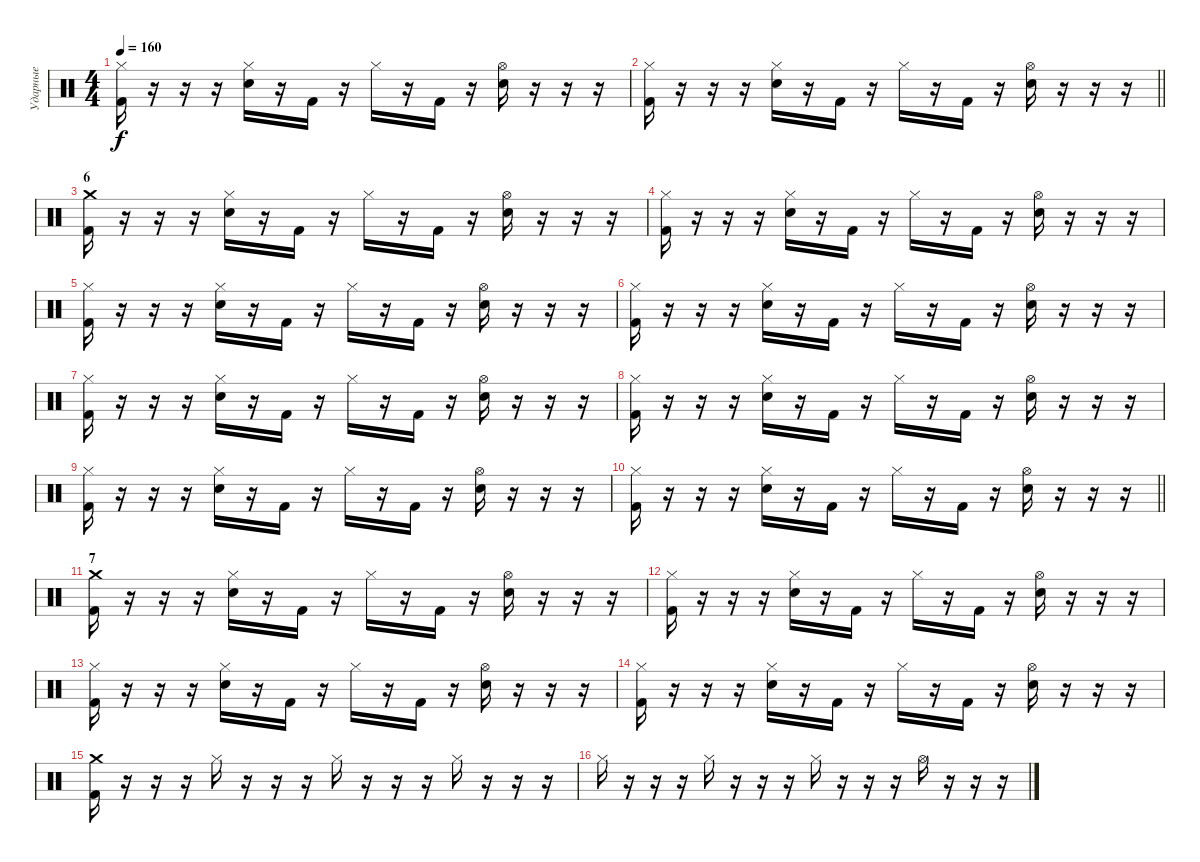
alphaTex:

\track ("Ударные" "Ударные") {instrument percussion}
\staff {score}
\articulation defaults
\ts (4 4)
\tempo 160
\clef neutral
\ks c
("Hi-Hat (closed)" "Kick (hit) 2").16{dy f} r.16 r.16 r.16 ("Hi-Hat (closed)" "Electric Snare (hit)").16 r.16 "Kick (hit) 2".16 r.16 "Hi-Hat (closed)".16 r.16 "Kick (hit) 2".16 r.16 ("Hi-Hat (open)" "Electric Snare (hit)").16 r.16 r.16 r.16 |
\barLineRight lightlight
("Hi-Hat (closed)" "Kick (hit) 2").16 r.16 r.16 r.16 ("Hi-Hat (closed)" "Electric Snare (hit)").16 r.16 "Kick (hit) 2".16 r.16 "Hi-Hat (closed)".16 r.16 "Kick (hit) 2".16 r.16 ("Hi-Hat (open)" "Electric Snare (hit)").16 r.16 r.16 r.16 |
\section ("" "6")
("Crash medium (hit)" "Kick (hit) 2").16 r.16 r.16 r.16 ("Hi-Hat (closed)" "Electric Snare (hit)").16 r.16 "Kick (hit) 2".16 r.16 "Hi-Hat (closed)".16 r.16 "Kick (hit) 2".16 r.16 ("Hi-Hat (open)" "Electric Snare (hit)").16 r.16 r.16 r.16 |
("Hi-Hat (closed)" "Kick (hit) 2").16 r.16 r.16 r.16 ("Hi-Hat (closed)" "Electric Snare (hit)").16 r.16 "Kick (hit) 2".16 r.16 "Hi-Hat (closed)".16 r.16 "Kick (hit) 2".16 r.16 ("Hi-Hat (open)" "Electric Snare (hit)").16 r.16 r.16 r.16 |
("Hi-Hat (closed)" "Kick (hit) 2").16 r.16 r.16 r.16 ("Hi-Hat (closed)" "Electric Snare (hit)").16 r.16 "Kick (hit) 2".16 r.16 "Hi-Hat (closed)".16 r.16 "Kick (hit) 2".16 r.16 ("Hi-Hat (open)" "Electric Snare (hit)").16 r.16 r.16 r.16 |
("Hi-Hat (closed)" "Kick (hit) 2").16 r.16 r.16 r.16 ("Hi-Hat (closed)" "Electric Snare (hit)").16 r.16 "Kick (hit) 2".16 r.16 "Hi-Hat (closed)".16 r.16 "Kick (hit) 2".16 r.16 ("Hi-Hat (open)" "Electric Snare (hit)").16 r.16 r.16 r.16 |
("Hi-Hat (closed)" "Kick (hit) 2").16 r.16 r.16 r.16 ("Hi-Hat (closed)" "Electric Snare (hit)").16 r.16 "Kick (hit) 2".16 r.16 "Hi-Hat (closed)".16 r.16 "Kick (hit) 2".16 r.16 ("Hi-Hat (open)" "Electric Snare (hit)").16 r.16 r.16 r.16 |
("Hi-Hat (closed)" "Kick (hit) 2").16 r.16 r.16 r.16 ("Hi-Hat (closed)" "Electric Snare (hit)").16 r.16 "Kick (hit) 2".16 r.16 "Hi-Hat (closed)".16 r.16 "Kick (hit) 2".16 r.16 ("Hi-Hat (open)" "Electric Snare (hit)").16 r.16 r.16 r.16 |
("Hi-Hat (closed)" "Kick (hit) 2").16 r.16 r.16 r.16 ("Hi-Hat (closed)" "Electric Snare (hit)").16 r.16 "Kick (hit) 2".16 r.16 "Hi-Hat (closed)".16 r.16 "Kick (hit) 2".16 r.16 ("Hi-Hat (open)" "Electric Snare (hit)").16 r.16 r.16 r.16 |
\barLineRight lightlight
("Hi-Hat (closed)" "Kick (hit) 2").16 r.16 r.16 r.16 ("Hi-Hat (closed)" "Electric Snare (hit)").16 r.16 "Kick (hit) 2".16 r.16 "Hi-Hat (closed)".16 r.16 "Kick (hit) 2".16 r.16 ("Hi-Hat (open)" "Electric Snare (hit)").16 r.16 r.16 r.16 |
\section ("" "7")
("Crash medium (hit)" "Kick (hit) 2").16 r.16 r.16 r.16 ("Hi-Hat (closed)" "Electric Snare (hit)").16 r.16 "Kick (hit) 2".16 r.16 "Hi-Hat (closed)".16 r.16 "Kick (hit) 2".16 r.16 ("Hi-Hat (open)" "Electric Snare (hit)").16 r.16 r.16 r.16 |
("Hi-Hat (closed)" "Kick (hit) 2").16 r.16 r.16 r.16 ("Hi-Hat (closed)" "Electric Snare (hit)").16 r.16 "Kick (hit) 2".16 r.16 "Hi-Hat (closed)".16 r.16 "Kick (hit) 2".16 r.16 ("Hi-Hat (open)" "Electric Snare (hit)").16 r.16 r.16 r.16 |
("Hi-Hat (closed)" "Kick (hit) 2").16 r.16 r.16 r.16 ("Hi-Hat (closed)" "Electric Snare (hit)").16 r.16 "Kick (hit) 2".16 r.16 "Hi-Hat (closed)".16 r.16 "Kick (hit) 2".16 r.16 ("Hi-Hat (open)" "Electric Snare (hit)").16 r.16 r.16 r.16 |
("Hi-Hat (closed)" "Kick (hit) 2").16 r.16 r.16 r.16 ("Hi-Hat (closed)" "Electric Snare (hit)").16 r.16 "Kick (hit) 2".16 r.16 "Hi-Hat (closed)".16 r.16 "Kick (hit) 2".16 r.16 ("Hi-Hat (open)" "Electric Snare (hit)").16 r.16 r.16 r.16 |
("Crash medium (hit)" "Kick (hit) 2").16 r.16 r.16 r.16 "Hi-Hat (closed)".16 r.16 r.16 r.16 "Hi-Hat (closed)".16 r.16 r.16 r.16 "Hi-Hat (closed)".16 r.16 r.16 r.16 |
"Hi-Hat (closed)".16 r.16 r.16 r.16 "Hi-Hat (closed)".16 r.16 r.16 r.16 "Hi-Hat (closed)".16 r.16 r.16 r.16 "Hi-Hat (open)".16 r.16 r.16 r.16
